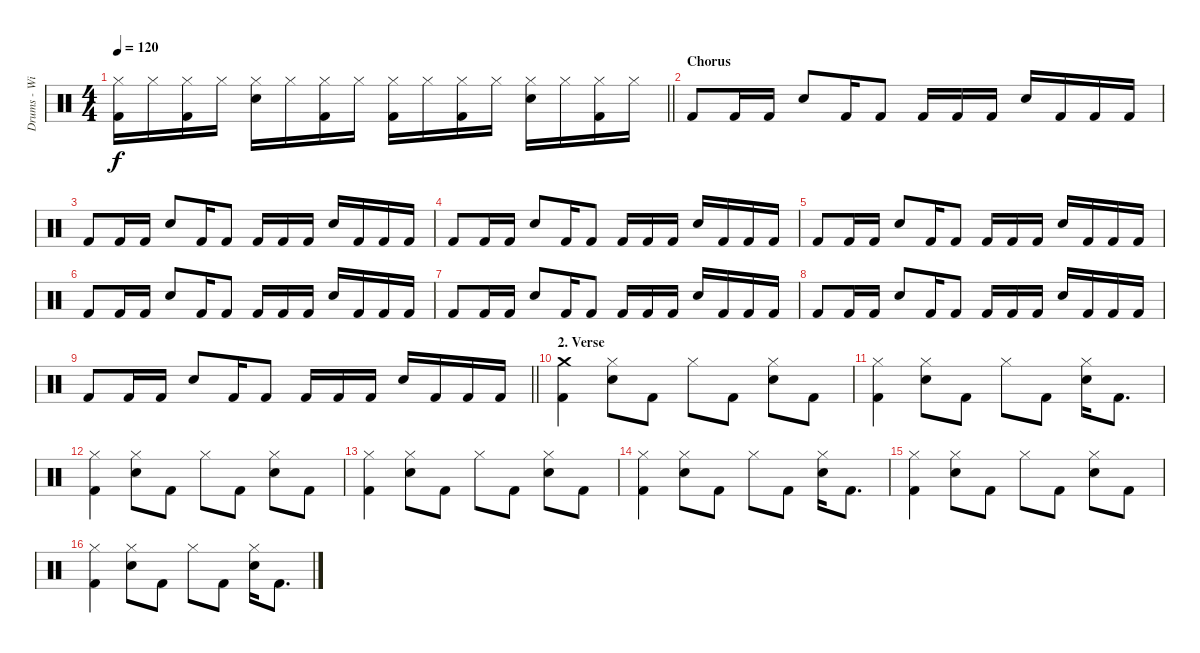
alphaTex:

\track ("Drums - Willi Wurm" "Drums - Wi") {instrument percussion}
\staff {score}
\articulation defaults
\ts (4 4)
\tempo 120
\clef neutral
\barLineRight lightlight
\ks c
("Hi-Hat (closed)" "Kick (hit) 2").16{dy f} "Hi-Hat (closed)".16 ("Hi-Hat (closed)" "Kick (hit) 2").16 "Hi-Hat (closed)".16 ("Hi-Hat (closed)" "Snare (hit) 2").16 "Hi-Hat (closed)".16 ("Hi-Hat (closed)" "Kick (hit) 2").16 "Hi-Hat (closed)".16 ("Hi-Hat (closed)" "Kick (hit) 2").16 "Hi-Hat (closed)".16 ("Hi-Hat (closed)" "Kick (hit) 2").16 "Hi-Hat (closed)".16 ("Hi-Hat (closed)" "Snare (hit) 2").16 "Hi-Hat (closed)".16 ("Hi-Hat (closed)" "Kick (hit) 2").16 "Hi-Hat (closed)".16 |
\section ("" "Chorus")
"Kick (hit) 2".8 "Kick (hit) 2".16 "Kick (hit) 2".16 "Snare (hit) 2".8 "Kick (hit) 2".16 "Kick (hit) 2".8 "Kick (hit) 2".16 "Kick (hit) 2".16 "Kick (hit) 2".16 "Snare (hit) 2".16 "Kick (hit) 2".16 "Kick (hit) 2".16 "Kick (hit) 2".16 |
"Kick (hit) 2".8 "Kick (hit) 2".16 "Kick (hit) 2".16 "Snare (hit) 2".8 "Kick (hit) 2".16 "Kick (hit) 2".8 "Kick (hit) 2".16 "Kick (hit) 2".16 "Kick (hit) 2".16 "Snare (hit) 2".16 "Kick (hit) 2".16 "Kick (hit) 2".16 "Kick (hit) 2".16 |
"Kick (hit) 2".8 "Kick (hit) 2".16 "Kick (hit) 2".16 "Snare (hit) 2".8 "Kick (hit) 2".16 "Kick (hit) 2".8 "Kick (hit) 2".16 "Kick (hit) 2".16 "Kick (hit) 2".16 "Snare (hit) 2".16 "Kick (hit) 2".16 "Kick (hit) 2".16 "Kick (hit) 2".16 |
"Kick (hit) 2".8 "Kick (hit) 2".16 "Kick (hit) 2".16 "Snare (hit) 2".8 "Kick (hit) 2".16 "Kick (hit) 2".8 "Kick (hit) 2".16 "Kick (hit) 2".16 "Kick (hit) 2".16 "Snare (hit) 2".16 "Kick (hit) 2".16 "Kick (hit) 2".16 "Kick (hit) 2".16 |
"Kick (hit) 2".8 "Kick (hit) 2".16 "Kick (hit) 2".16 "Snare (hit) 2".8 "Kick (hit) 2".16 "Kick (hit) 2".8 "Kick (hit) 2".16 "Kick (hit) 2".16 "Kick (hit) 2".16 "Snare (hit) 2".16 "Kick (hit) 2".16 "Kick (hit) 2".16 "Kick (hit) 2".16 |
"Kick (hit) 2".8 "Kick (hit) 2".16 "Kick (hit) 2".16 "Snare (hit) 2".8 "Kick (hit) 2".16 "Kick (hit) 2".8 "Kick (hit) 2".16 "Kick (hit) 2".16 "Kick (hit) 2".16 "Snare (hit) 2".16 "Kick (hit) 2".16 "Kick (hit) 2".16 "Kick (hit) 2".16 |
"Kick (hit) 2".8 "Kick (hit) 2".16 "Kick (hit) 2".16 "Snare (hit) 2".8 "Kick (hit) 2".16 "Kick (hit) 2".8 "Kick (hit) 2".16 "Kick (hit) 2".16 "Kick (hit) 2".16 "Snare (hit) 2".16 "Kick (hit) 2".16 "Kick (hit) 2".16 "Kick (hit) 2".16 |
\barLineRight lightlight "Kick (hit) 2".8 "Kick (hit) 2".16 "Kick (hit) 2".16 "Snare (hit) 2".8 "Kick (hit) 2".16 "Kick (hit) 2".8 "Kick (hit) 2".16 "Kick (hit) 2".16 "Kick (hit) 2".16 "Snare (hit) 2".16 "Kick (hit) 2".16 "Kick (hit) 2".16 "Kick (hit) 2".16
|
\section ("" "2. Verse")
("Crash medium (hit)" "Kick (hit) 2").4 ("Hi-Hat (closed)" "Snare (hit) 2").8 "Kick (hit) 2".8 "Hi-Hat (closed)".8 "Kick (hit) 2".8 ("Hi-Hat (closed)" "Snare (hit) 2").8 "Kick (hit) 2".8 |
("Hi-Hat (closed)" "Kick (hit) 2").4 ("Hi-Hat (closed)" "Snare (hit) 2").8 "Kick (hit) 2".8 "Hi-Hat (closed)".8 "Kick (hit) 2".8 ("Hi-Hat (closed)" "Snare (hit) 2").16 "Kick (hit) 2".8{d} |
("Hi-Hat (closed)" "Kick (hit) 2").4 ("Hi-Hat (closed)" "Snare (hit) 2").8 "Kick (hit) 2".8 "Hi-Hat (closed)".8 "Kick (hit) 2".8 ("Hi-Hat (closed)" "Snare (hit) 2").8 "Kick (hit) 2".8 |
("Hi-Hat (closed)" "Kick (hit) 2").4 ("Hi-Hat (closed)" "Snare (hit) 2").8 "Kick (hit) 2".8 "Hi-Hat (closed)".8 "Kick (hit) 2".8 ("Hi-Hat (closed)" "Snare (hit) 2").8 "Kick (hit) 2".8 |
("Hi-Hat (closed)" "Kick (hit) 2").4 ("Hi-Hat (closed)" "Snare (hit) 2").8 "Kick (hit) 2".8 "Hi-Hat (closed)".8 "Kick (hit) 2".8 ("Hi-Hat (closed)" "Snare (hit) 2").16 "Kick (hit) 2".8{d} |
("Hi-Hat (closed)" "Kick (hit) 2").4 ("Hi-Hat (closed)" "Snare (hit) 2").8 "Kick (hit) 2".8 "Hi-Hat (closed)".8 "Kick (hit) 2".8 ("Hi-Hat (closed)" "Snare (hit) 2").8 "Kick (hit) 2".8 |
("Hi-Hat (closed)" "Kick (hit) 2").4 ("Hi-Hat (closed)" "Snare (hit) 2").8 "Kick (hit) 2".8 "Hi-Hat (closed)".8 "Kick (hit) 2".8 ("Hi-Hat (closed)" "Snare (hit) 2").16 "Kick (hit) 2".8{d}
